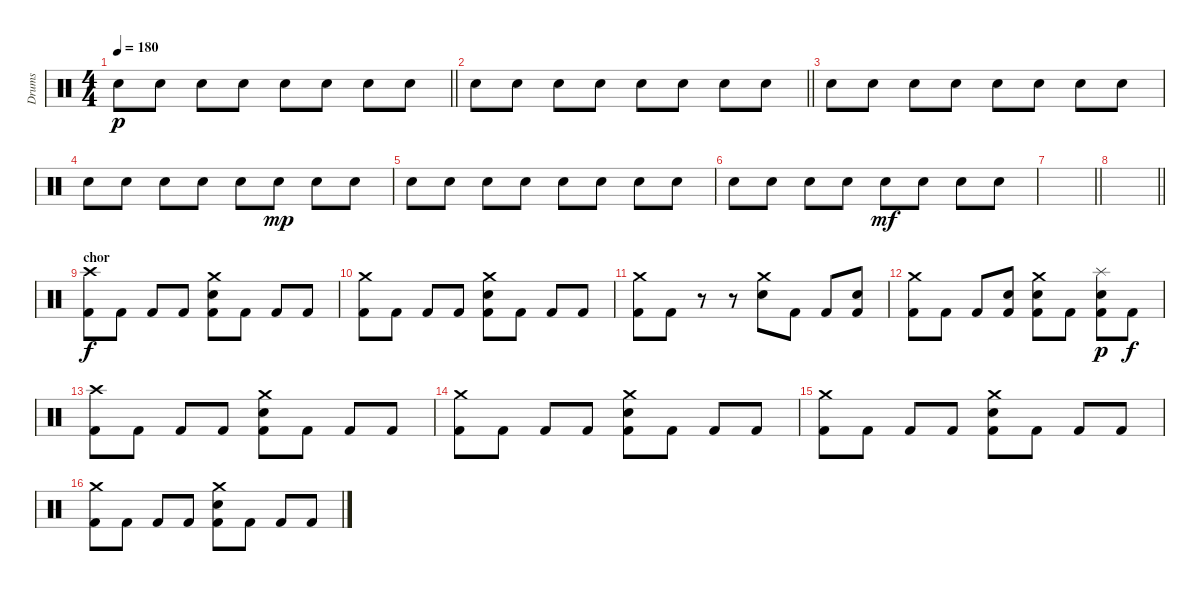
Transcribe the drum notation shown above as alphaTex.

\track ("Drums" "Drums") {instrument percussion}
\staff {score}
\articulation defaults
\ts (4 4)
\tempo 180
\clef neutral
\barLineRight lightlight
\ks c "Electric Snare (hit)".8{dy p} "Electric Snare (hit)".8 "Electric Snare (hit)".8 "Electric Snare (hit)".8 "Electric Snare (hit)".8 "Electric Snare (hit)".8 "Electric Snare (hit)".8 "Electric Snare (hit)".8
|
\barLineRight lightlight "Electric Snare (hit)".8 "Electric Snare (hit)".8 "Electric Snare (hit)".8 "Electric Snare (hit)".8 "Electric Snare (hit)".8 "Electric Snare (hit)".8 "Electric Snare (hit)".8 "Electric Snare (hit)".8
|
"Electric Snare (hit)".8 "Electric Snare (hit)".8 "Electric Snare (hit)".8 "Electric Snare (hit)".8 "Electric Snare (hit)".8 "Electric Snare (hit)".8 "Electric Snare (hit)".8 "Electric Snare (hit)".8 |
"Electric Snare (hit)".8 "Electric Snare (hit)".8 "Electric Snare (hit)".8 "Electric Snare (hit)".8 "Electric Snare (hit)".8 "Electric Snare (hit)".8{dy mp} "Electric Snare (hit)".8 "Electric Snare (hit)".8 |
"Electric Snare (hit)".8 "Electric Snare (hit)".8 "Electric Snare (hit)".8 "Electric Snare (hit)".8 "Electric Snare (hit)".8 "Electric Snare (hit)".8 "Electric Snare (hit)".8 "Electric Snare (hit)".8 |
"Electric Snare (hit)".8 "Electric Snare (hit)".8 "Electric Snare (hit)".8 "Electric Snare (hit)".8 "Electric Snare (hit)".8{dy mf} "Electric Snare (hit)".8 "Electric Snare (hit)".8 "Electric Snare (hit)".8 |
\barLineRight lightlight
|
\barLineRight lightlight
|
\section ("" "chor")
("Crash high (hit)" "Kick (hit) 2").8{dy f} "Kick (hit) 2".8 "Kick (hit) 2".8 "Kick (hit) 2".8 ("Crash medium (hit)" "Electric Snare (hit)" "Kick (hit) 2").8 "Kick (hit) 2".8 "Kick (hit) 2".8 "Kick (hit) 2".8 |
("Crash medium (hit)" "Kick (hit) 2").8 "Kick (hit) 2".8 "Kick (hit) 2".8 "Kick (hit) 2".8 ("Crash medium (hit)" "Electric Snare (hit)" "Kick (hit) 2").8 "Kick (hit) 2".8 "Kick (hit) 2".8 "Kick (hit) 2".8 |
("Crash medium (hit)" "Kick (hit) 2").8 "Kick (hit) 2".8 r.8 r.8 ("Crash medium (hit)" "Electric Snare (hit)").8 "Kick (hit) 2".8 "Kick (hit) 2".8 ("Electric Snare (hit)" "Kick (hit) 2").8 |
("Crash medium (hit)" "Kick (hit) 2").8 "Kick (hit) 2".8 "Kick (hit) 2".8 ("Electric Snare (hit)" "Kick (hit) 2").8 ("Crash medium (hit)" "Electric Snare (hit)" "Kick (hit) 2").8 "Kick (hit) 2".8 ("Splash (hit)" "Electric Snare (hit)" "Kick (hit) 2").8{dy p} "Kick (hit) 2".8{dy f} |
("Crash high (hit)" "Kick (hit) 2").8 "Kick (hit) 2".8 "Kick (hit) 2".8 "Kick (hit) 2".8 ("Crash medium (hit)" "Electric Snare (hit)" "Kick (hit) 2").8 "Kick (hit) 2".8 "Kick (hit) 2".8 "Kick (hit) 2".8 |
("Crash medium (hit)" "Kick (hit) 2").8 "Kick (hit) 2".8 "Kick (hit) 2".8 "Kick (hit) 2".8 ("Crash medium (hit)" "Electric Snare (hit)" "Kick (hit) 2").8 "Kick (hit) 2".8 "Kick (hit) 2".8 "Kick (hit) 2".8 |
("Crash medium (hit)" "Kick (hit) 2").8 "Kick (hit) 2".8 "Kick (hit) 2".8 "Kick (hit) 2".8 ("Crash medium (hit)" "Electric Snare (hit)" "Kick (hit) 2").8 "Kick (hit) 2".8 "Kick (hit) 2".8 "Kick (hit) 2".8 |
("Crash medium (hit)" "Kick (hit) 2").8 "Kick (hit) 2".8 "Kick (hit) 2".8 "Kick (hit) 2".8 ("Crash medium (hit)" "Electric Snare (hit)" "Kick (hit) 2").8 "Kick (hit) 2".8 "Kick (hit) 2".8 "Kick (hit) 2".8
